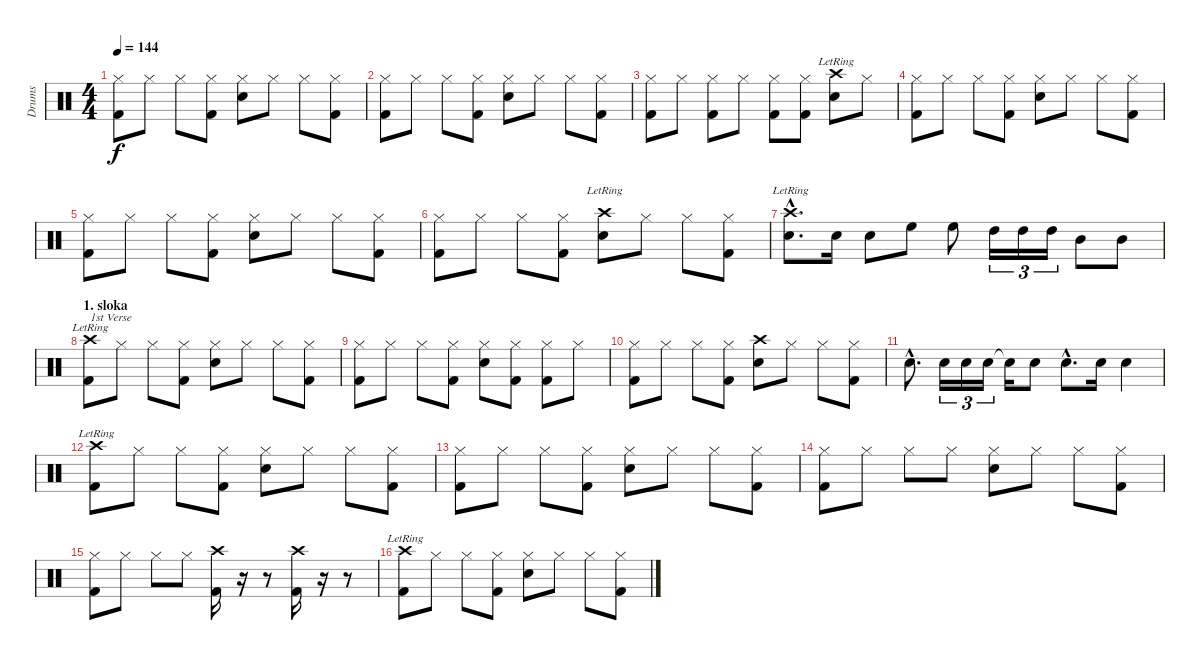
\track ("Drums" "Drums") {instrument percussion}
\staff {score}
\articulation defaults
\ts (4 4)
\tempo 144
\clef neutral
\ks c
("Hi-Hat (closed)" "Kick (hit) 2").8{dy f} "Hi-Hat (closed)".8 "Hi-Hat (closed)".8 ("Hi-Hat (closed)" "Kick (hit) 2").8 ("Hi-Hat (closed)" "Snare (hit) 2").8 "Hi-Hat (closed)".8 "Hi-Hat (closed)".8 ("Hi-Hat (closed)" "Kick (hit) 2").8 |
("Hi-Hat (closed)" "Kick (hit) 2").8 "Hi-Hat (closed)".8 "Hi-Hat (closed)".8 ("Hi-Hat (closed)" "Kick (hit) 2").8 ("Hi-Hat (closed)" "Snare (hit) 2").8 "Hi-Hat (closed)".8 "Hi-Hat (closed)".8 ("Hi-Hat (closed)" "Kick (hit) 2").8 |
("Hi-Hat (closed)" "Kick (hit) 2").8 "Hi-Hat (closed)".8 ("Hi-Hat (closed)" "Kick (hit) 2").8 "Hi-Hat (closed)".8 ("Hi-Hat (closed)" "Kick (hit) 2").8 ("Hi-Hat (closed)" "Kick (hit) 2").8 ("Crash high (hit)"{lr} "Snare (hit) 2").8 "Hi-Hat (closed)".8 |
("Hi-Hat (closed)" "Kick (hit) 2").8 "Hi-Hat (closed)".8 "Hi-Hat (closed)".8 ("Hi-Hat (closed)" "Kick (hit) 2").8 ("Hi-Hat (closed)" "Snare (hit) 2").8 "Hi-Hat (closed)".8 "Hi-Hat (closed)".8 ("Hi-Hat (closed)" "Kick (hit) 2").8 |
("Hi-Hat (closed)" "Kick (hit) 2").8 "Hi-Hat (closed)".8 "Hi-Hat (closed)".8 ("Hi-Hat (closed)" "Kick (hit) 2").8 ("Hi-Hat (closed)" "Snare (hit) 2").8 "Hi-Hat (closed)".8 "Hi-Hat (closed)".8 ("Hi-Hat (closed)" "Kick (hit) 2").8 |
("Hi-Hat (closed)" "Kick (hit) 2").8 "Hi-Hat (closed)".8 "Hi-Hat (closed)".8 ("Hi-Hat (closed)" "Kick (hit) 2").8 ("Crash high (hit)"{lr} "Snare (hit) 2").8 "Hi-Hat (closed)".8 "Hi-Hat (closed)".8 ("Hi-Hat (closed)" "Kick (hit) 2").8 |
("Crash high (hit)"{hac lr} "Snare (hit) 2"{hac}).8{d} "Snare (hit) 2".16 "Snare (hit) 2".8 "High Floor Tom (hit)".8 "High Floor Tom (hit)".8 "High Tom (hit)".16{tu (3 2)} "High Tom (hit)".16{tu (3 2)} "High Tom (hit)".16{tu (3 2)} "Mid Tom (hit)".8 "Mid Tom (hit)".8 |
\section ("" "1. sloka")
("Crash high (hit)"{lr} "Kick (hit) 2").8{txt "1st Verse"} "Hi-Hat (closed)".8 "Hi-Hat (closed)".8 ("Hi-Hat (closed)" "Kick (hit) 2").8 ("Hi-Hat (closed)" "Snare (hit) 2").8 "Hi-Hat (closed)".8 "Hi-Hat (closed)".8 ("Hi-Hat (closed)" "Kick (hit) 2").8 |
("Hi-Hat (closed)" "Kick (hit) 2").8 "Hi-Hat (closed)".8 "Hi-Hat (closed)".8 ("Hi-Hat (closed)" "Kick (hit) 2").8 ("Hi-Hat (closed)" "Snare (hit) 2").8 ("Hi-Hat (closed)" "Kick (hit) 2").8 ("Hi-Hat (closed)" "Kick (hit) 2").8 "Hi-Hat (closed)".8 |
("Hi-Hat (closed)" "Kick (hit) 2").8 "Hi-Hat (closed)".8 "Hi-Hat (closed)".8 ("Hi-Hat (closed)" "Kick (hit) 2").8 ("Crash high (hit)" "Snare (hit) 2").8 "Hi-Hat (closed)".8 "Hi-Hat (closed)".8 ("Hi-Hat (closed)" "Kick (hit) 2").8 |
"Snare (hit) 2"{hac}.8{d} "Snare (hit) 2".16{tu (3 2)} "Snare (hit) 2".16{tu (3 2)} "Snare (hit) 2".16{tu (3 2)} "Snare (hit)"{t}.16 "Snare (hit) 2".8 "Snare (hit) 2"{hac}.8{d} "Snare (hit) 2".16 "Snare (hit) 2".4 |
("Crash high (hit)"{lr} "Kick (hit) 2").8 "Hi-Hat (closed)".8 "Hi-Hat (closed)".8 ("Hi-Hat (closed)" "Kick (hit) 2").8 ("Hi-Hat (closed)" "Snare (hit) 2").8 "Hi-Hat (closed)".8 "Hi-Hat (closed)".8 ("Hi-Hat (closed)" "Kick (hit) 2").8 |
("Hi-Hat (closed)" "Kick (hit) 2").8 "Hi-Hat (closed)".8 "Hi-Hat (closed)".8 ("Hi-Hat (closed)" "Kick (hit) 2").8 ("Hi-Hat (closed)" "Snare (hit) 2").8 "Hi-Hat (closed)".8 "Hi-Hat (closed)".8 ("Hi-Hat (closed)" "Kick (hit) 2").8 |
("Hi-Hat (closed)" "Kick (hit) 2").8 "Hi-Hat (closed)".8 "Hi-Hat (closed)".8 "Hi-Hat (closed)".8 ("Hi-Hat (closed)" "Snare (hit) 2").8 "Hi-Hat (closed)".8 "Hi-Hat (closed)".8 ("Hi-Hat (closed)" "Kick (hit) 2").8 |
("Hi-Hat (closed)" "Kick (hit) 2").8 "Hi-Hat (closed)".8 "Hi-Hat (closed)".8 "Hi-Hat (closed)".8 ("Crash high (hit)" "Kick (hit) 2").16 r.16 r.8 ("Crash high (hit)" "Kick (hit) 2").16 r.16 r.8 |
("Crash high (hit)"{lr} "Kick (hit) 2").8 "Hi-Hat (closed)".8 "Hi-Hat (closed)".8 ("Hi-Hat (closed)" "Kick (hit) 2").8 ("Hi-Hat (closed)" "Snare (hit) 2").8 "Hi-Hat (closed)".8 "Hi-Hat (closed)".8 ("Hi-Hat (closed)" "Kick (hit) 2").8
